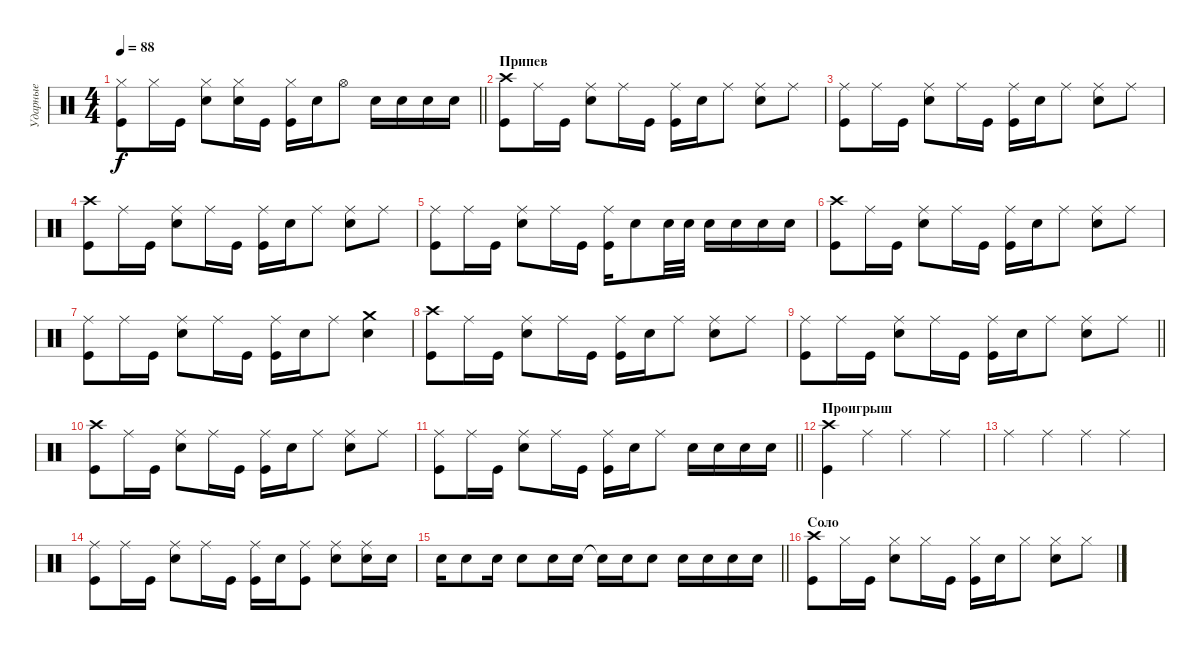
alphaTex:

\track ("Ударные" "Ударные") {instrument percussion}
\staff {score}
\articulation defaults
\ts (4 4)
\tempo 88
\clef neutral
\barLineRight lightlight
\ks c
("Hi-Hat (closed)" "Kick (hit)").8{dy f} "Hi-Hat (closed)".16 "Kick (hit)".16 ("Hi-Hat (closed)" "Snare (hit) 2").8 ("Hi-Hat (closed)" "Snare (hit) 2").16 "Kick (hit)".16 ("Hi-Hat (closed)" "Kick (hit)").16 "Snare (hit) 2".16 "Hi-Hat (open)".8 "Snare (hit) 2".16 "Snare (hit) 2".16 "Snare (hit) 2".16 "Snare (hit) 2".16 |
\section ("" "Припев")
("Crash high (hit)" "Kick (hit)").8 "Ride (middle)".16 "Kick (hit)".16 ("Ride (middle)" "Snare (hit) 2").8 "Ride (middle)".16 "Kick (hit)".16 ("Ride (middle)" "Kick (hit)").16 "Snare (hit) 2".16 "Ride (middle)".8 ("Ride (middle)" "Snare (hit) 2").8 "Ride (middle)".8 |
("Ride (middle)" "Kick (hit)").8 "Ride (middle)".16 "Kick (hit)".16 ("Ride (middle)" "Snare (hit) 2").8 "Ride (middle)".16 "Kick (hit)".16 ("Ride (middle)" "Kick (hit)").16 "Snare (hit) 2".16 "Ride (middle)".8 ("Ride (middle)" "Snare (hit) 2").8 "Ride (middle)".8 |
("Crash high (hit)" "Kick (hit)").8 "Ride (middle)".16 "Kick (hit)".16 ("Ride (middle)" "Snare (hit) 2").8 "Ride (middle)".16 "Kick (hit)".16 ("Ride (middle)" "Kick (hit)").16 "Snare (hit) 2".16 "Ride (middle)".8 ("Ride (middle)" "Snare (hit) 2").8 "Ride (middle)".8 |
("Ride (middle)" "Kick (hit)").8 "Ride (middle)".16 "Kick (hit)".16 ("Ride (middle)" "Snare (hit) 2").8 "Ride (middle)".16 "Kick (hit)".16 ("Ride (middle)" "Kick (hit)").16 "Snare (hit) 2".8 "Snare (hit) 2".32 "Snare (hit) 2".32 "Snare (hit) 2".16 "Snare (hit) 2".16 "Snare (hit) 2".16 "Snare (hit) 2".16 |
("Crash high (hit)" "Kick (hit)").8 "Ride (middle)".16 "Kick (hit)".16 ("Ride (middle)" "Snare (hit) 2").8 "Ride (middle)".16 "Kick (hit)".16 ("Ride (middle)" "Kick (hit)").16 "Snare (hit) 2".16 "Ride (middle)".8 ("Ride (middle)" "Snare (hit) 2").8 "Ride (middle)".8 |
("Ride (middle)" "Kick (hit)").8 "Ride (middle)".16 "Kick (hit)".16 ("Ride (middle)" "Snare (hit) 2").8 "Ride (middle)".16 "Kick (hit)".16 ("Ride (middle)" "Kick (hit)").16 "Snare (hit) 2".16 "Ride (middle)".8 ("Crash medium (hit)" "Snare (hit) 2").4 |
("Crash high (hit)" "Kick (hit)").8 "Ride (middle)".16 "Kick (hit)".16 ("Ride (middle)" "Snare (hit) 2").8 "Ride (middle)".16 "Kick (hit)".16 ("Ride (middle)" "Kick (hit)").16 "Snare (hit) 2".16 "Ride (middle)".8 ("Ride (middle)" "Snare (hit) 2").8 "Ride (middle)".8 |
\barLineRight lightlight
("Ride (middle)" "Kick (hit)").8 "Ride (middle)".16 "Kick (hit)".16 ("Ride (middle)" "Snare (hit) 2").8 "Ride (middle)".16 "Kick (hit)".16 ("Ride (middle)" "Kick (hit)").16 "Snare (hit) 2".16 "Ride (middle)".8 ("Ride (middle)" "Snare (hit) 2").8 "Ride (middle)".8 |
("Crash high (hit)" "Kick (hit)").8 "Ride (middle)".16 "Kick (hit)".16 ("Ride (middle)" "Snare (hit) 2").8 "Ride (middle)".16 "Kick (hit)".16 ("Ride (middle)" "Kick (hit)").16 "Snare (hit) 2".16 "Ride (middle)".8 ("Ride (middle)" "Snare (hit) 2").8 "Ride (middle)".8 |
\barLineRight lightlight
("Ride (middle)" "Kick (hit)").8 "Ride (middle)".16 "Kick (hit)".16 ("Ride (middle)" "Snare (hit) 2").8 "Ride (middle)".16 "Kick (hit)".16 ("Ride (middle)" "Kick (hit)").16 "Snare (hit) 2".16 "Ride (middle)".8 "Snare (hit) 2".16 "Snare (hit) 2".16 "Snare (hit) 2".16 "Snare (hit) 2".16 |
\section ("" "Проигрыш")
("Crash high (hit)" "Kick (hit)").4 "Ride (middle)".4 "Ride (middle)".4 "Ride (middle)".4 |
"Ride (middle)".4 "Ride (middle)".4 "Ride (middle)".4 "Ride (middle)".4 |
("Ride (middle)" "Kick (hit)").8 "Ride (middle)".16 "Kick (hit)".16 ("Ride (middle)" "Snare (hit) 2").8 "Ride (middle)".16 "Kick (hit)".16 ("Ride (middle)" "Kick (hit)").16 "Snare (hit) 2".16 ("Ride (middle)" "Kick (hit)").8 ("Ride (middle)" "Snare (hit) 2").8 ("Ride (middle)" "Snare (hit) 2").16 "Snare (hit) 2".16 |
\barLineRight lightlight "Snare (hit) 2".16 "Snare (hit) 2".8 "Snare (hit) 2".16 "Snare (hit) 2".8 "Snare (hit) 2".16 "Snare (hit) 2".16 "Snare (hit)"{t}.16 "Snare (hit) 2".16 "Snare (hit) 2".8 "Snare (hit) 2".16 "Snare (hit) 2".16 "Snare (hit) 2".16 "Snare (hit) 2".16
|
\section ("" "Соло")
("Crash high (hit)" "Kick (hit)").8 "Hi-Hat (closed)".16 "Kick (hit)".16 ("Hi-Hat (closed)" "Snare (hit) 2").8 "Hi-Hat (closed)".16 "Kick (hit)".16 ("Hi-Hat (closed)" "Kick (hit)").16 "Snare (hit) 2".16 "Hi-Hat (closed)".8 ("Hi-Hat (closed)" "Snare (hit) 2").8 "Hi-Hat (closed)".8
